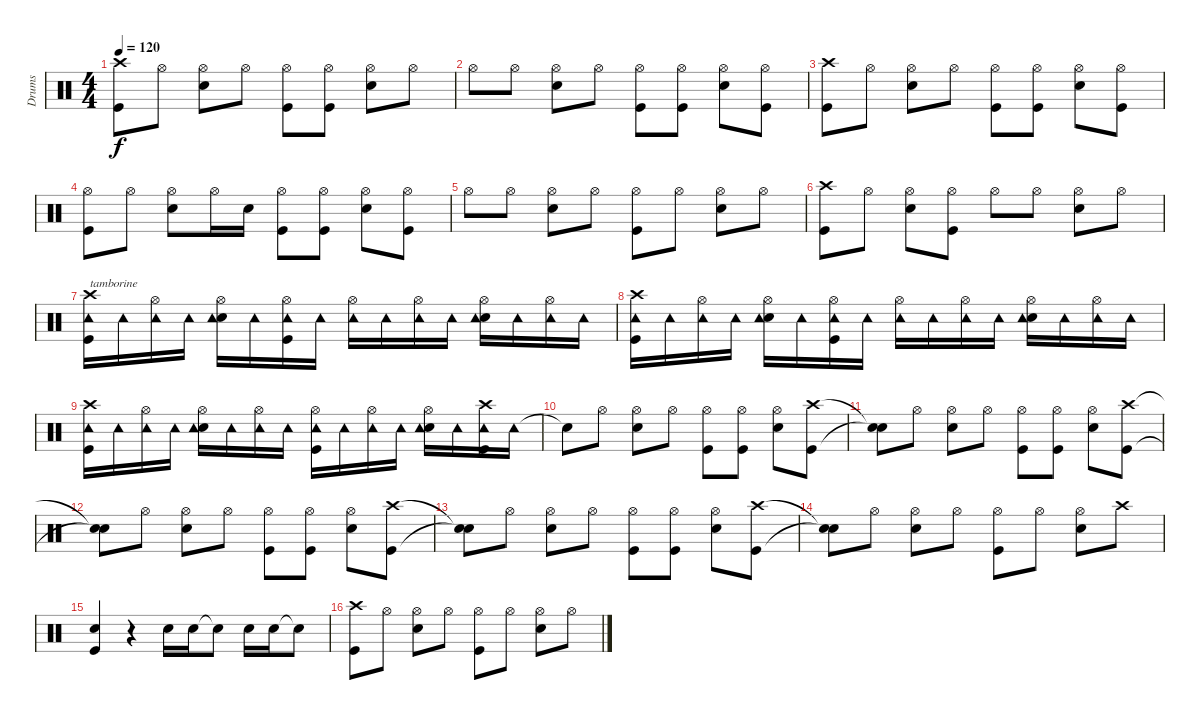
\track ("Drums" "Drums") {instrument percussion}
\staff {score}
\articulation defaults
\ts (4 4)
\tempo 120
\clef neutral
\ks c
("Crash high (hit)" "Kick (hit)").8{dy f} "Hi-Hat (open)".8 ("Hi-Hat (open)" "Snare (hit) 2").8 "Hi-Hat (open)".8 ("Hi-Hat (open)" "Kick (hit)").8 ("Hi-Hat (open)" "Kick (hit)").8 ("Hi-Hat (open)" "Snare (hit) 2").8 "Hi-Hat (open)".8 |
"Hi-Hat (open)".8 "Hi-Hat (open)".8 ("Hi-Hat (open)" "Snare (hit) 2").8 "Hi-Hat (open)".8 ("Hi-Hat (open)" "Kick (hit)").8 ("Hi-Hat (open)" "Kick (hit)").8 ("Hi-Hat (open)" "Snare (hit) 2").8 ("Hi-Hat (open)" "Kick (hit)").8 |
("Crash high (hit)" "Kick (hit)").8 "Hi-Hat (open)".8 ("Hi-Hat (open)" "Snare (hit) 2").8 "Hi-Hat (open)".8 ("Hi-Hat (open)" "Kick (hit)").8 ("Hi-Hat (open)" "Kick (hit)").8 ("Hi-Hat (open)" "Snare (hit) 2").8 ("Hi-Hat (open)" "Kick (hit)").8 |
("Hi-Hat (open)" "Kick (hit)").8 "Hi-Hat (open)".8 ("Hi-Hat (open)" "Snare (hit) 2").8 "Hi-Hat (open)".16 "Snare (hit) 2".16 ("Hi-Hat (open)" "Kick (hit)").8 ("Hi-Hat (open)" "Kick (hit)").8 ("Hi-Hat (open)" "Snare (hit) 2").8 ("Hi-Hat (open)" "Kick (hit)").8 |
"Hi-Hat (open)".8 "Hi-Hat (open)".8 ("Hi-Hat (open)" "Snare (hit) 2").8 "Hi-Hat (open)".8 ("Hi-Hat (open)" "Kick (hit)").8 "Hi-Hat (open)".8 ("Hi-Hat (open)" "Snare (hit) 2").8 "Hi-Hat (open)".8 |
("Crash high (hit)" "Kick (hit)").8 "Hi-Hat (open)".8 ("Hi-Hat (open)" "Snare (hit) 2").8 ("Hi-Hat (open)" "Kick (hit)").8 "Hi-Hat (open)".8 "Hi-Hat (open)".8 ("Hi-Hat (open)" "Snare (hit) 2").8 "Hi-Hat (open)".8 |
("Crash high (hit)" "Tambourine (hit)" "Kick (hit)").16{txt "tamborine"} "Tambourine (hit)".16 ("Hi-Hat (open)" "Tambourine (hit)").16 "Tambourine (hit)".16 ("Hi-Hat (open)" "Snare (hit) 2" "Tambourine (hit)").16 "Tambourine (hit)".16 ("Hi-Hat (open)" "Tambourine (hit)" "Kick (hit)").16 "Tambourine (hit)".16 ("Hi-Hat (open)" "Tambourine (hit)").16 "Tambourine (hit)".16 ("Hi-Hat (open)" "Tambourine (hit)").16 "Tambourine (hit)".16 ("Hi-Hat (open)" "Snare (hit) 2" "Tambourine (hit)").16 "Tambourine (hit)".16 ("Hi-Hat (open)" "Tambourine (hit)").16 "Tambourine (hit)".16 |
("Crash high (hit)" "Tambourine (hit)" "Kick (hit)").16 "Tambourine (hit)".16 ("Hi-Hat (open)" "Tambourine (hit)").16 "Tambourine (hit)".16 ("Hi-Hat (open)" "Snare (hit) 2" "Tambourine (hit)").16 "Tambourine (hit)".16 ("Hi-Hat (open)" "Tambourine (hit)" "Kick (hit)").16 "Tambourine (hit)".16 ("Hi-Hat (open)" "Tambourine (hit)").16 "Tambourine (hit)".16 ("Hi-Hat (open)" "Tambourine (hit)").16 "Tambourine (hit)".16 ("Hi-Hat (open)" "Snare (hit) 2" "Tambourine (hit)").16 "Tambourine (hit)".16 ("Hi-Hat (open)" "Tambourine (hit)").16 "Tambourine (hit)".16 |
("Crash high (hit)" "Tambourine (hit)" "Kick (hit)").16 "Tambourine (hit)".16 ("Hi-Hat (open)" "Tambourine (hit)").16 "Tambourine (hit)".16 ("Hi-Hat (open)" "Snare (hit) 2" "Tambourine (hit)").16 "Tambourine (hit)".16 ("Hi-Hat (open)" "Tambourine (hit)").16 "Tambourine (hit)".16 ("Hi-Hat (open)" "Tambourine (hit)" "Kick (hit)").16 "Tambourine (hit)".16 ("Hi-Hat (open)" "Tambourine (hit)").16 "Tambourine (hit)".16 ("Hi-Hat (open)" "Snare (hit) 2" "Tambourine (hit)").16 "Tambourine (hit)".16 ("Crash high (hit)" "Tambourine (hit)" "Kick (hit)").16 "Tambourine (hit)".16 |
"Snare (hit)"{t}.8 "Hi-Hat (open)".8 ("Hi-Hat (open)" "Snare (hit) 2").8 "Hi-Hat (open)".8 ("Hi-Hat (open)" "Kick (hit)").8 ("Hi-Hat (open)" "Kick (hit)").8 ("Hi-Hat (open)" "Snare (hit) 2").8 ("Crash high (hit)" "Kick (hit)").8 |
("Snare (hit)"{t} "Snare (hit)"{t}).8 "Hi-Hat (open)".8 ("Hi-Hat (open)" "Snare (hit) 2").8 "Hi-Hat (open)".8 ("Hi-Hat (open)" "Kick (hit)").8 ("Hi-Hat (open)" "Kick (hit)").8 ("Hi-Hat (open)" "Snare (hit) 2").8 ("Crash high (hit)" "Kick (hit)").8 |
("Snare (hit)"{t} "Snare (hit)"{t}).8 "Hi-Hat (open)".8 ("Hi-Hat (open)" "Snare (hit) 2").8 "Hi-Hat (open)".8 ("Hi-Hat (open)" "Kick (hit)").8 ("Hi-Hat (open)" "Kick (hit)").8 ("Hi-Hat (open)" "Snare (hit) 2").8 ("Crash high (hit)" "Kick (hit)").8 |
("Snare (hit)"{t} "Snare (hit)"{t}).8 "Hi-Hat (open)".8 ("Hi-Hat (open)" "Snare (hit) 2").8 "Hi-Hat (open)".8 ("Hi-Hat (open)" "Kick (hit)").8 ("Hi-Hat (open)" "Kick (hit)").8 ("Hi-Hat (open)" "Snare (hit) 2").8 ("Crash high (hit)" "Kick (hit)").8 |
("Snare (hit)"{t} "Snare (hit)"{t}).8 "Hi-Hat (open)".8 ("Hi-Hat (open)" "Snare (hit) 2").8 "Hi-Hat (open)".8 ("Hi-Hat (open)" "Kick (hit)").8 "Hi-Hat (open)".8 ("Hi-Hat (open)" "Snare (hit) 2").8 "Crash high (hit)".8 |
("Snare (hit) 2" "Kick (hit)").4 r.4 "Snare (hit) 2".16 "Snare (hit) 2".16 "Snare (hit)"{t}.8 "Snare (hit) 2".16 "Snare (hit) 2".16 "Snare (hit)"{t}.8 |
("Crash high (hit)" "Kick (hit)").8 "Hi-Hat (open)".8 ("Hi-Hat (open)" "Snare (hit) 2").8 "Hi-Hat (open)".8 ("Hi-Hat (open)" "Kick (hit)").8 "Hi-Hat (open)".8 ("Hi-Hat (open)" "Snare (hit) 2").8 "Hi-Hat (open)".8
